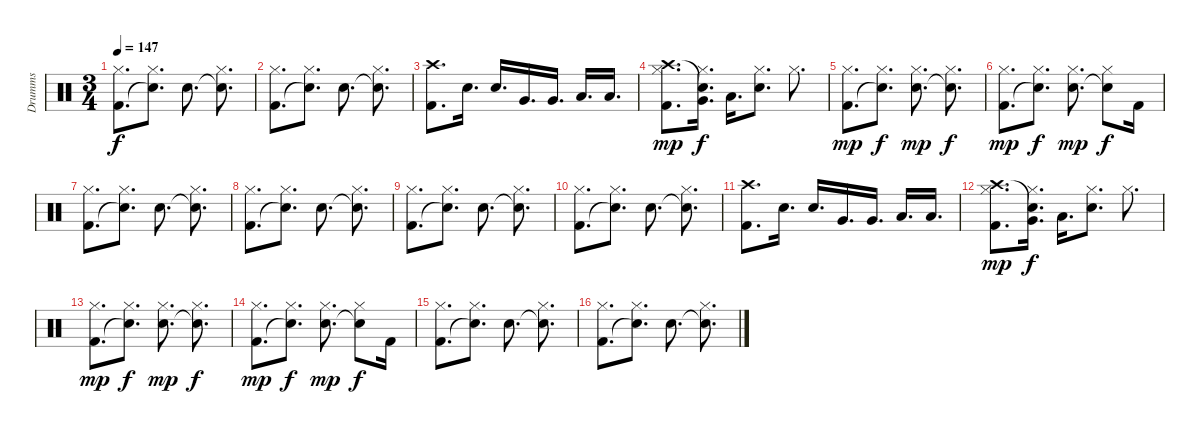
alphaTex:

\track ("Drumms" "Drumms") {instrument percussion}
\staff {score}
\articulation defaults
\ts (3 4)
\tempo 147
\clef neutral
\ks c
("Kick (hit) 2" "Hi-Hat (closed)").8{d dy f} ("Snare (hit)"{t} "Hi-Hat (closed)").8{d} "Electric Snare (hit)".8{d} ("Snare (hit)"{t} "Hi-Hat (closed)").8{d} |
("Kick (hit) 2" "Hi-Hat (closed)").8{d} ("Snare (hit)"{t} "Hi-Hat (closed)").8{d} "Electric Snare (hit)".8{d} ("Snare (hit)"{t} "Hi-Hat (closed)").8{d} |
("Crash high (hit)" "Kick (hit) 2").8{d} "Electric Snare (hit)".16{d} "Electric Snare (hit)".16{d} "Very Low Tom (hit)".16{d} "Very Low Tom (hit)".16{d} "Low Tom (hit)".16{d} "Low Tom (hit)".16{d} |
("Crash high (hit)" "Kick (hit) 2" "Hi-Hat (closed)").8{d dy mp} ("Snare (hit)"{t} "Very Low Tom (hit)" "Hi-Hat (closed)").16{d dy f} "Low Tom (hit)".16{d} ("Electric Snare (hit)" "Hi-Hat (closed)").8{d} "Hi-Hat (closed)".8{d} |
("Kick (hit) 2" "Hi-Hat (closed)").8{d dy mp} ("Snare (hit)"{t} "Hi-Hat (closed)").8{d dy f} ("Electric Snare (hit)" "Hi-Hat (closed)").8{d dy mp} ("Snare (hit)"{t} "Hi-Hat (closed)").8{d dy f} |
("Kick (hit) 2" "Hi-Hat (closed)").8{d dy mp} ("Snare (hit)"{t} "Hi-Hat (closed)").8{d dy f} ("Electric Snare (hit)" "Hi-Hat (closed)").8{d dy mp} ("Snare (hit)"{t} "Hi-Hat (closed)").8{dy f} "Kick (hit) 2".16 |
("Kick (hit) 2" "Hi-Hat (closed)").8{d} ("Snare (hit)"{t} "Hi-Hat (closed)").8{d} "Electric Snare (hit)".8{d} ("Snare (hit)"{t} "Hi-Hat (closed)").8{d} |
("Kick (hit) 2" "Hi-Hat (closed)").8{d} ("Snare (hit)"{t} "Hi-Hat (closed)").8{d} "Electric Snare (hit)".8{d} ("Snare (hit)"{t} "Hi-Hat (closed)").8{d} |
("Kick (hit) 2" "Hi-Hat (closed)").8{d} ("Snare (hit)"{t} "Hi-Hat (closed)").8{d} "Electric Snare (hit)".8{d} ("Snare (hit)"{t} "Hi-Hat (closed)").8{d} |
("Kick (hit) 2" "Hi-Hat (closed)").8{d} ("Snare (hit)"{t} "Hi-Hat (closed)").8{d} "Electric Snare (hit)".8{d} ("Snare (hit)"{t} "Hi-Hat (closed)").8{d} |
("Crash high (hit)" "Kick (hit) 2").8{d} "Electric Snare (hit)".16{d} "Electric Snare (hit)".16{d} "Very Low Tom (hit)".16{d} "Very Low Tom (hit)".16{d} "Low Tom (hit)".16{d} "Low Tom (hit)".16{d} |
("Crash high (hit)" "Kick (hit) 2" "Hi-Hat (closed)").8{d dy mp} ("Snare (hit)"{t} "Very Low Tom (hit)" "Hi-Hat (closed)").16{d dy f} "Low Tom (hit)".16{d} ("Electric Snare (hit)" "Hi-Hat (closed)").8{d} "Hi-Hat (closed)".8{d} |
("Kick (hit) 2" "Hi-Hat (closed)").8{d dy mp} ("Snare (hit)"{t} "Hi-Hat (closed)").8{d dy f} ("Electric Snare (hit)" "Hi-Hat (closed)").8{d dy mp} ("Snare (hit)"{t} "Hi-Hat (closed)").8{d dy f} |
("Kick (hit) 2" "Hi-Hat (closed)").8{d dy mp} ("Snare (hit)"{t} "Hi-Hat (closed)").8{d dy f} ("Electric Snare (hit)" "Hi-Hat (closed)").8{d dy mp} ("Snare (hit)"{t} "Hi-Hat (closed)").8{dy f} "Kick (hit) 2".16 |
("Kick (hit) 2" "Hi-Hat (closed)").8{d} ("Snare (hit)"{t} "Hi-Hat (closed)").8{d} "Electric Snare (hit)".8{d} ("Snare (hit)"{t} "Hi-Hat (closed)").8{d} |
("Kick (hit) 2" "Hi-Hat (closed)").8{d} ("Snare (hit)"{t} "Hi-Hat (closed)").8{d} "Electric Snare (hit)".8{d} ("Snare (hit)"{t} "Hi-Hat (closed)").8{d}
